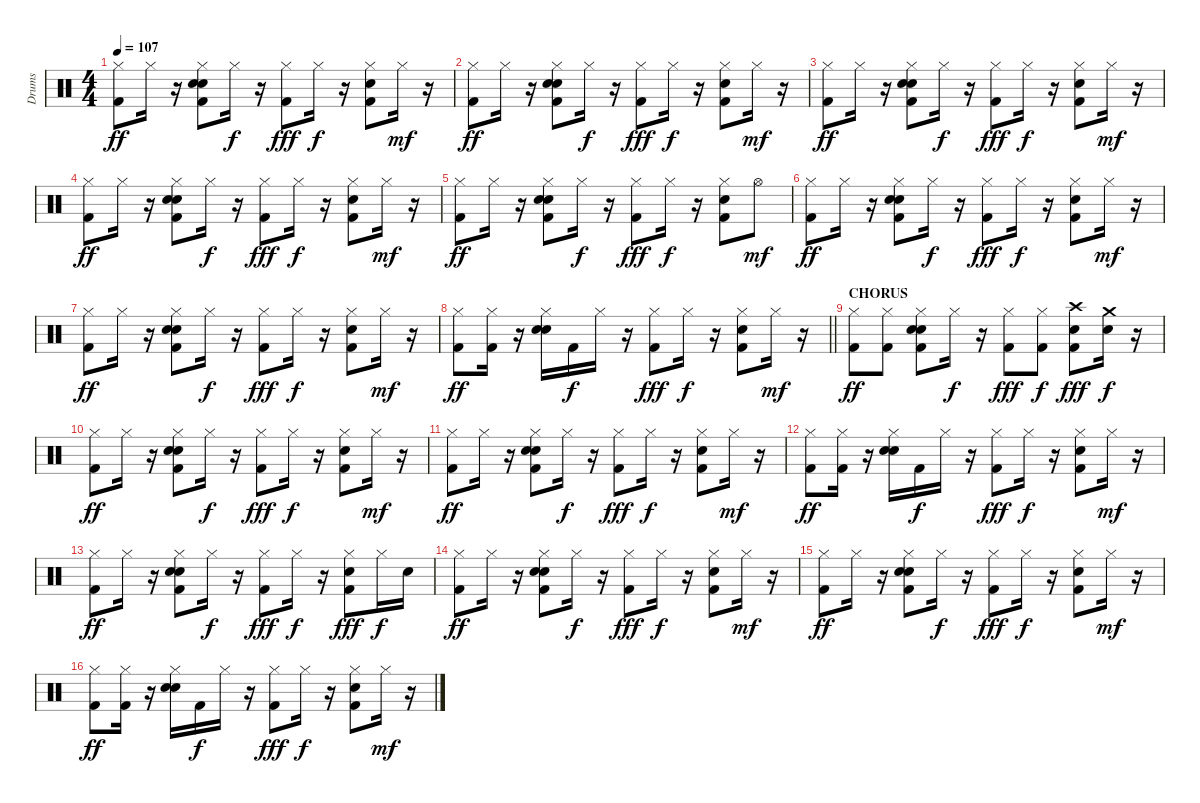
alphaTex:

\track ("Drums" "Drums") {instrument percussion}
\staff {score}
\articulation defaults
\ts (4 4)
\tempo 107
\clef neutral
\ks c
("Kick (hit) 2" "Hi-Hat (closed)").8{dy ff} "Hi-Hat (closed)".16 r.16 ("Kick (hit) 2" "Electric Snare (hit)" "Electric Snare (hit)" "Hi-Hat (closed)").8 "Hi-Hat (closed)".16{dy f} r.16 ("Kick (hit) 2" "Hi-Hat (closed)").8{dy fff} "Hi-Hat (closed)".16{dy f} r.16 ("Kick (hit) 2" "Electric Snare (hit)" "Hi-Hat (closed)").8 "Hi-Hat (closed)".16{dy mf} r.16 |
("Kick (hit) 2" "Hi-Hat (closed)").8{dy ff} "Hi-Hat (closed)".16 r.16 ("Kick (hit) 2" "Electric Snare (hit)" "Electric Snare (hit)" "Hi-Hat (closed)").8 "Hi-Hat (closed)".16{dy f} r.16 ("Kick (hit) 2" "Hi-Hat (closed)").8{dy fff} "Hi-Hat (closed)".16{dy f} r.16 ("Kick (hit) 2" "Electric Snare (hit)" "Hi-Hat (closed)").8 "Hi-Hat (closed)".16{dy mf} r.16 |
("Kick (hit) 2" "Hi-Hat (closed)").8{dy ff} "Hi-Hat (closed)".16 r.16 ("Kick (hit) 2" "Electric Snare (hit)" "Electric Snare (hit)" "Hi-Hat (closed)").8 "Hi-Hat (closed)".16{dy f} r.16 ("Kick (hit) 2" "Hi-Hat (closed)").8{dy fff} "Hi-Hat (closed)".16{dy f} r.16 ("Kick (hit) 2" "Electric Snare (hit)" "Hi-Hat (closed)").8 "Hi-Hat (closed)".16{dy mf} r.16 |
("Kick (hit) 2" "Hi-Hat (closed)").8{dy ff} "Hi-Hat (closed)".16 r.16 ("Kick (hit) 2" "Electric Snare (hit)" "Electric Snare (hit)" "Hi-Hat (closed)").8 "Hi-Hat (closed)".16{dy f} r.16 ("Kick (hit) 2" "Hi-Hat (closed)").8{dy fff} "Hi-Hat (closed)".16{dy f} r.16 ("Kick (hit) 2" "Electric Snare (hit)" "Hi-Hat (closed)").8 "Hi-Hat (closed)".16{dy mf} r.16 |
("Kick (hit) 2" "Hi-Hat (closed)").8{dy ff} "Hi-Hat (closed)".16 r.16 ("Kick (hit) 2" "Electric Snare (hit)" "Electric Snare (hit)" "Hi-Hat (closed)").8 "Hi-Hat (closed)".16{dy f} r.16 ("Kick (hit) 2" "Hi-Hat (closed)").8{dy fff} "Hi-Hat (closed)".16{dy f} r.16 ("Kick (hit) 2" "Electric Snare (hit)" "Hi-Hat (closed)").8 "Hi-Hat (open)".8{dy mf} |
("Kick (hit) 2" "Hi-Hat (closed)").8{dy ff} "Hi-Hat (closed)".16 r.16 ("Kick (hit) 2" "Electric Snare (hit)" "Electric Snare (hit)" "Hi-Hat (closed)").8 "Hi-Hat (closed)".16{dy f} r.16 ("Kick (hit) 2" "Hi-Hat (closed)").8{dy fff} "Hi-Hat (closed)".16{dy f} r.16 ("Kick (hit) 2" "Electric Snare (hit)" "Hi-Hat (closed)").8 "Hi-Hat (closed)".16{dy mf} r.16 |
("Kick (hit) 2" "Hi-Hat (closed)").8{dy ff} "Hi-Hat (closed)".16 r.16 ("Kick (hit) 2" "Electric Snare (hit)" "Electric Snare (hit)" "Hi-Hat (closed)").8 "Hi-Hat (closed)".16{dy f} r.16 ("Kick (hit) 2" "Hi-Hat (closed)").8{dy fff} "Hi-Hat (closed)".16{dy f} r.16 ("Kick (hit) 2" "Electric Snare (hit)" "Hi-Hat (closed)").8 "Hi-Hat (closed)".16{dy mf} r.16 |
\barLineRight lightlight
("Kick (hit) 2" "Hi-Hat (closed)").8{dy ff} ("Kick (hit) 2" "Hi-Hat (closed)").16 r.16 ("Electric Snare (hit)" "Electric Snare (hit)" "Hi-Hat (closed)").16 "Kick (hit) 2".16{dy f} "Hi-Hat (closed)".16 r.16 ("Kick (hit) 2" "Hi-Hat (closed)").8{dy fff} "Hi-Hat (closed)".16{dy f} r.16 ("Kick (hit) 2" "Electric Snare (hit)" "Hi-Hat (closed)").8 "Hi-Hat (closed)".16{dy mf} r.16 |
\section ("" "CHORUS")
("Kick (hit) 2" "Hi-Hat (closed)").8{dy ff} ("Kick (hit) 2" "Hi-Hat (closed)").8 ("Kick (hit) 2" "Electric Snare (hit)" "Electric Snare (hit)" "Hi-Hat (closed)").8 "Hi-Hat (closed)".16{dy f} r.16 ("Kick (hit) 2" "Hi-Hat (closed)").8{dy fff} ("Kick (hit) 2" "Hi-Hat (closed)").8{dy f} ("Kick (hit) 2" "Electric Snare (hit)" "Crash high (hit)").8{dy fff} ("Electric Snare (hit)" "Crash medium (hit)").16{dy f} r.16 |
("Kick (hit) 2" "Hi-Hat (closed)").8{dy ff} "Hi-Hat (closed)".16 r.16 ("Kick (hit) 2" "Electric Snare (hit)" "Electric Snare (hit)" "Hi-Hat (closed)").8 "Hi-Hat (closed)".16{dy f} r.16 ("Kick (hit) 2" "Hi-Hat (closed)").8{dy fff} "Hi-Hat (closed)".16{dy f} r.16 ("Kick (hit) 2" "Electric Snare (hit)" "Hi-Hat (closed)").8 "Hi-Hat (closed)".16{dy mf} r.16 |
("Kick (hit) 2" "Hi-Hat (closed)").8{dy ff} "Hi-Hat (closed)".16 r.16 ("Kick (hit) 2" "Electric Snare (hit)" "Electric Snare (hit)" "Hi-Hat (closed)").8 "Hi-Hat (closed)".16{dy f} r.16 ("Kick (hit) 2" "Hi-Hat (closed)").8{dy fff} "Hi-Hat (closed)".16{dy f} r.16 ("Kick (hit) 2" "Electric Snare (hit)" "Hi-Hat (closed)").8 "Hi-Hat (closed)".16{dy mf} r.16 |
("Kick (hit) 2" "Hi-Hat (closed)").8{dy ff} ("Kick (hit) 2" "Hi-Hat (closed)").16 r.16 ("Electric Snare (hit)" "Electric Snare (hit)" "Hi-Hat (closed)").16 "Kick (hit) 2".16{dy f} "Hi-Hat (closed)".16 r.16 ("Kick (hit) 2" "Hi-Hat (closed)").8{dy fff} "Hi-Hat (closed)".16{dy f} r.16 ("Kick (hit) 2" "Electric Snare (hit)" "Hi-Hat (closed)").8 "Hi-Hat (closed)".16{dy mf} r.16 |
("Kick (hit) 2" "Hi-Hat (closed)").8{dy ff} "Hi-Hat (closed)".16 r.16 ("Kick (hit) 2" "Electric Snare (hit)" "Electric Snare (hit)" "Hi-Hat (closed)").8 "Hi-Hat (closed)".16{dy f} r.16 ("Kick (hit) 2" "Hi-Hat (closed)").8{dy fff} "Hi-Hat (closed)".16{dy f} r.16 ("Kick (hit) 2" "Electric Snare (hit)" "Hi-Hat (closed)").8{dy fff} "Hi-Hat (closed)".16{dy f} "Electric Snare (hit)".16 |
("Kick (hit) 2" "Hi-Hat (closed)").8{dy ff} "Hi-Hat (closed)".16 r.16 ("Kick (hit) 2" "Electric Snare (hit)" "Electric Snare (hit)" "Hi-Hat (closed)").8 "Hi-Hat (closed)".16{dy f} r.16 ("Kick (hit) 2" "Hi-Hat (closed)").8{dy fff} "Hi-Hat (closed)".16{dy f} r.16 ("Kick (hit) 2" "Electric Snare (hit)" "Hi-Hat (closed)").8 "Hi-Hat (closed)".16{dy mf} r.16 |
("Kick (hit) 2" "Hi-Hat (closed)").8{dy ff} "Hi-Hat (closed)".16 r.16 ("Kick (hit) 2" "Electric Snare (hit)" "Electric Snare (hit)" "Hi-Hat (closed)").8 "Hi-Hat (closed)".16{dy f} r.16 ("Kick (hit) 2" "Hi-Hat (closed)").8{dy fff} "Hi-Hat (closed)".16{dy f} r.16 ("Kick (hit) 2" "Electric Snare (hit)" "Hi-Hat (closed)").8 "Hi-Hat (closed)".16{dy mf} r.16 |
("Kick (hit) 2" "Hi-Hat (closed)").8{dy ff} ("Kick (hit) 2" "Hi-Hat (closed)").16 r.16 ("Electric Snare (hit)" "Electric Snare (hit)" "Hi-Hat (closed)").16 "Kick (hit) 2".16{dy f} "Hi-Hat (closed)".16 r.16 ("Kick (hit) 2" "Hi-Hat (closed)").8{dy fff} "Hi-Hat (closed)".16{dy f} r.16 ("Kick (hit) 2" "Electric Snare (hit)" "Hi-Hat (closed)").8 "Hi-Hat (closed)".16{dy mf} r.16
